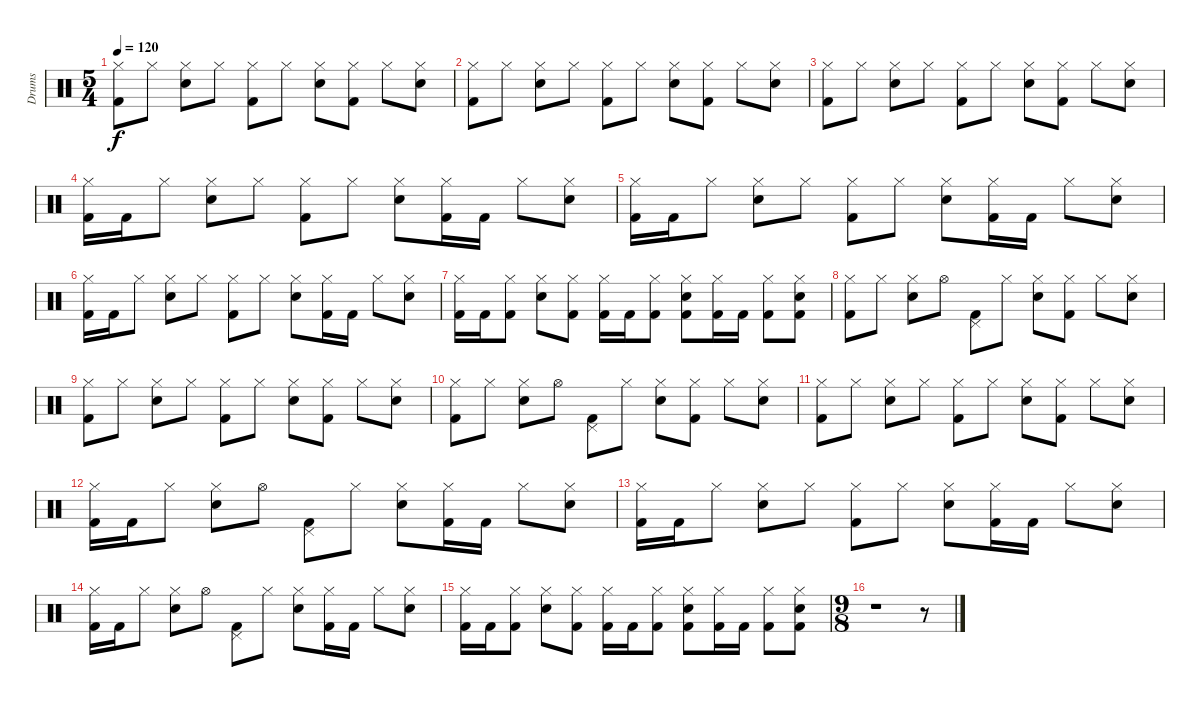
\track ("Drums" "Drums") {instrument percussion}
\staff {score}
\articulation defaults
\ts (5 4)
\tempo 120
\clef neutral
\ks c
("Hi-Hat (closed)" "Kick (hit) 2").8{dy f} "Hi-Hat (closed)".8 ("Hi-Hat (closed)" "Snare (hit) 2").8 "Hi-Hat (closed)".8 ("Hi-Hat (closed)" "Kick (hit) 2").8 "Hi-Hat (closed)".8 ("Hi-Hat (closed)" "Snare (hit) 2").8 ("Hi-Hat (closed)" "Kick (hit) 2").8 "Hi-Hat (closed)".8 ("Hi-Hat (closed)" "Snare (hit) 2").8 |
("Hi-Hat (closed)" "Kick (hit) 2").8 "Hi-Hat (closed)".8 ("Hi-Hat (closed)" "Snare (hit) 2").8 "Hi-Hat (closed)".8 ("Hi-Hat (closed)" "Kick (hit) 2").8 "Hi-Hat (closed)".8 ("Hi-Hat (closed)" "Snare (hit) 2").8 ("Hi-Hat (closed)" "Kick (hit) 2").8 "Hi-Hat (closed)".8 ("Hi-Hat (closed)" "Snare (hit) 2").8 |
("Hi-Hat (closed)" "Kick (hit) 2").8 "Hi-Hat (closed)".8 ("Hi-Hat (closed)" "Snare (hit) 2").8 "Hi-Hat (closed)".8 ("Hi-Hat (closed)" "Kick (hit) 2").8 "Hi-Hat (closed)".8 ("Hi-Hat (closed)" "Snare (hit) 2").8 ("Hi-Hat (closed)" "Kick (hit) 2").8 "Hi-Hat (closed)".8 ("Hi-Hat (closed)" "Snare (hit) 2").8 |
("Hi-Hat (closed)" "Kick (hit) 2").16 "Kick (hit) 2".16 "Hi-Hat (closed)".8 ("Hi-Hat (closed)" "Snare (hit) 2").8 "Hi-Hat (closed)".8 ("Hi-Hat (closed)" "Kick (hit) 2").8 "Hi-Hat (closed)".8 ("Hi-Hat (closed)" "Snare (hit) 2").8 ("Hi-Hat (closed)" "Kick (hit) 2").16 "Kick (hit) 2".16 "Hi-Hat (closed)".8 ("Hi-Hat (closed)" "Snare (hit) 2").8 |
("Hi-Hat (closed)" "Kick (hit) 2").16 "Kick (hit) 2".16 "Hi-Hat (closed)".8 ("Hi-Hat (closed)" "Snare (hit) 2").8 "Hi-Hat (closed)".8 ("Hi-Hat (closed)" "Kick (hit) 2").8 "Hi-Hat (closed)".8 ("Hi-Hat (closed)" "Snare (hit) 2").8 ("Hi-Hat (closed)" "Kick (hit) 2").16 "Kick (hit) 2".16 "Hi-Hat (closed)".8 ("Hi-Hat (closed)" "Snare (hit) 2").8 |
("Hi-Hat (closed)" "Kick (hit) 2").16 "Kick (hit) 2".16 "Hi-Hat (closed)".8 ("Hi-Hat (closed)" "Snare (hit) 2").8 "Hi-Hat (closed)".8 ("Hi-Hat (closed)" "Kick (hit) 2").8 "Hi-Hat (closed)".8 ("Hi-Hat (closed)" "Snare (hit) 2").8 ("Hi-Hat (closed)" "Kick (hit) 2").16 "Kick (hit) 2".16 "Hi-Hat (closed)".8 ("Hi-Hat (closed)" "Snare (hit) 2").8 |
("Hi-Hat (closed)" "Kick (hit) 2").16 "Kick (hit) 2".16 ("Hi-Hat (closed)" "Kick (hit) 2").8 ("Hi-Hat (closed)" "Snare (hit) 2").8 ("Hi-Hat (closed)" "Kick (hit) 2").8 ("Hi-Hat (closed)" "Kick (hit) 2").16 "Kick (hit) 2".16 ("Hi-Hat (closed)" "Kick (hit) 2").8 ("Hi-Hat (closed)" "Snare (hit) 2" "Kick (hit) 2").8 ("Hi-Hat (closed)" "Kick (hit) 2").16 "Kick (hit) 2".16 ("Hi-Hat (closed)" "Kick (hit) 2").8 ("Hi-Hat (closed)" "Snare (hit) 2" "Kick (hit) 2").8 |
("Hi-Hat (closed)" "Kick (hit) 2").8 "Hi-Hat (closed)".8 ("Hi-Hat (closed)" "Snare (hit) 2").8 "Hi-Hat (open)".8 ("Pedal Hi-Hat (hit)" "Kick (hit) 2").8 "Hi-Hat (closed)".8 ("Hi-Hat (closed)" "Snare (hit) 2").8 ("Hi-Hat (closed)" "Kick (hit) 2").8 "Hi-Hat (closed)".8 ("Hi-Hat (closed)" "Snare (hit) 2").8 |
("Hi-Hat (closed)" "Kick (hit) 2").8 "Hi-Hat (closed)".8 ("Hi-Hat (closed)" "Snare (hit) 2").8 "Hi-Hat (closed)".8 ("Hi-Hat (closed)" "Kick (hit) 2").8 "Hi-Hat (closed)".8 ("Hi-Hat (closed)" "Snare (hit) 2").8 ("Hi-Hat (closed)" "Kick (hit) 2").8 "Hi-Hat (closed)".8 ("Hi-Hat (closed)" "Snare (hit) 2").8 |
("Hi-Hat (closed)" "Kick (hit) 2").8 "Hi-Hat (closed)".8 ("Hi-Hat (closed)" "Snare (hit) 2").8 "Hi-Hat (open)".8 ("Pedal Hi-Hat (hit)" "Kick (hit) 2").8 "Hi-Hat (closed)".8 ("Hi-Hat (closed)" "Snare (hit) 2").8 ("Hi-Hat (closed)" "Kick (hit) 2").8 "Hi-Hat (closed)".8 ("Hi-Hat (closed)" "Snare (hit) 2").8 |
("Hi-Hat (closed)" "Kick (hit) 2").8 "Hi-Hat (closed)".8 ("Hi-Hat (closed)" "Snare (hit) 2").8 "Hi-Hat (closed)".8 ("Hi-Hat (closed)" "Kick (hit) 2").8 "Hi-Hat (closed)".8 ("Hi-Hat (closed)" "Snare (hit) 2").8 ("Hi-Hat (closed)" "Kick (hit) 2").8 "Hi-Hat (closed)".8 ("Hi-Hat (closed)" "Snare (hit) 2").8 |
("Hi-Hat (closed)" "Kick (hit) 2").16 "Kick (hit) 2".16 "Hi-Hat (closed)".8 ("Hi-Hat (closed)" "Snare (hit) 2").8 "Hi-Hat (open)".8 ("Pedal Hi-Hat (hit)" "Kick (hit) 2").8 "Hi-Hat (closed)".8 ("Hi-Hat (closed)" "Snare (hit) 2").8 ("Hi-Hat (closed)" "Kick (hit) 2").16 "Kick (hit) 2".16 "Hi-Hat (closed)".8 ("Hi-Hat (closed)" "Snare (hit) 2").8 |
("Hi-Hat (closed)" "Kick (hit) 2").16 "Kick (hit) 2".16 "Hi-Hat (closed)".8 ("Hi-Hat (closed)" "Snare (hit) 2").8 "Hi-Hat (closed)".8 ("Hi-Hat (closed)" "Kick (hit) 2").8 "Hi-Hat (closed)".8 ("Hi-Hat (closed)" "Snare (hit) 2").8 ("Hi-Hat (closed)" "Kick (hit) 2").16 "Kick (hit) 2".16 "Hi-Hat (closed)".8 ("Hi-Hat (closed)" "Snare (hit) 2").8 |
("Hi-Hat (closed)" "Kick (hit) 2").16 "Kick (hit) 2".16 "Hi-Hat (closed)".8 ("Hi-Hat (closed)" "Snare (hit) 2").8 "Hi-Hat (open)".8 ("Pedal Hi-Hat (hit)" "Kick (hit) 2").8 "Hi-Hat (closed)".8 ("Hi-Hat (closed)" "Snare (hit) 2").8 ("Hi-Hat (closed)" "Kick (hit) 2").16 "Kick (hit) 2".16 "Hi-Hat (closed)".8 ("Hi-Hat (closed)" "Snare (hit) 2").8 |
("Hi-Hat (closed)" "Kick (hit) 2").16 "Kick (hit) 2".16 ("Hi-Hat (closed)" "Kick (hit) 2").8 ("Hi-Hat (closed)" "Snare (hit) 2").8 ("Hi-Hat (closed)" "Kick (hit) 2").8 ("Hi-Hat (closed)" "Kick (hit) 2").16 "Kick (hit) 2".16 ("Hi-Hat (closed)" "Kick (hit) 2").8 ("Hi-Hat (closed)" "Snare (hit) 2" "Kick (hit) 2").8 ("Hi-Hat (closed)" "Kick (hit) 2").16 "Kick (hit) 2".16 ("Hi-Hat (closed)" "Kick (hit) 2").8 ("Hi-Hat (closed)" "Snare (hit) 2" "Kick (hit) 2").8 |
\ts (9 8)
r.1 r.8
